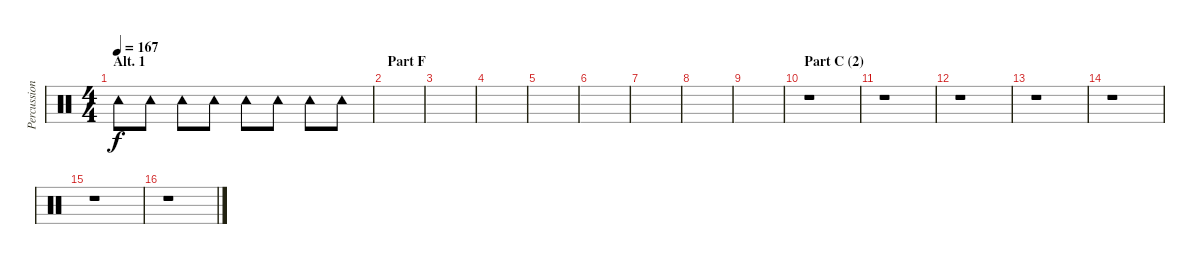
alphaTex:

\track ("Percussion" "Percussion") {instrument percussion}
\staff {score}
\articulation defaults
\ts (4 4)
\section ("" "Alt. 1")
\tempo 167
\clef neutral
\ks c "Tambourine (hit)".8{dy f} "Tambourine (hit)".8 "Tambourine (hit)".8 "Tambourine (hit)".8 "Tambourine (hit)".8 "Tambourine (hit)".8 "Tambourine (hit)".8 "Tambourine (hit)".8
|
\section ("" "Part F")
|
|
|
|
|
|
|
|
\section ("" "Part C (2)")
r.1 |
r.1 |
r.1 |
r.1 |
r.1 |
r.1 |
r.1
